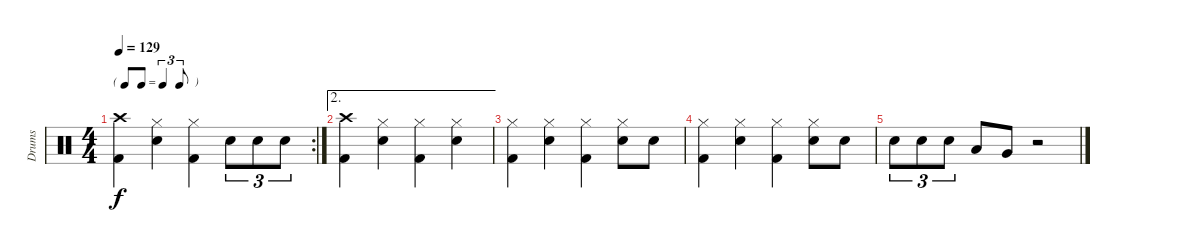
\track ("Drums" "Drums") {instrument percussion}
\staff {score}
\articulation defaults
\rc 2
\ts (4 4)
\tf triplet8th
\tempo 129
\clef neutral
\ks c
("Kick (hit) 2" "Crash high (hit)").4{dy f} ("Snare (hit) 2" "Hi-Hat (closed)").4 ("Kick (hit) 2" "Hi-Hat (closed)").4 "Snare (hit) 2".8{tu (3 2)} "Snare (hit) 2".8{tu (3 2)} "Snare (hit) 2".8{tu (3 2)} |
\ae 2
("Kick (hit) 2" "Crash high (hit)").4 ("Snare (hit) 2" "Hi-Hat (closed)").4 ("Kick (hit) 2" "Hi-Hat (closed)").4 ("Snare (hit) 2" "Hi-Hat (closed)").4 |
("Kick (hit) 2" "Hi-Hat (closed)").4 ("Snare (hit) 2" "Hi-Hat (closed)").4 ("Kick (hit) 2" "Hi-Hat (closed)").4 ("Snare (hit) 2" "Hi-Hat (closed)").8 "Snare (hit) 2".8 |
("Kick (hit) 2" "Hi-Hat (closed)").4 ("Snare (hit) 2" "Hi-Hat (closed)").4 ("Kick (hit) 2" "Hi-Hat (closed)").4 ("Snare (hit) 2" "Hi-Hat (closed)").8 "Snare (hit) 2".8 |
"Snare (hit) 2".8{tu (3 2)} "Snare (hit) 2".8{tu (3 2)} "Snare (hit) 2".8{tu (3 2)} "Low Tom (hit)".8 "Very Low Tom (hit)".8 r.2
